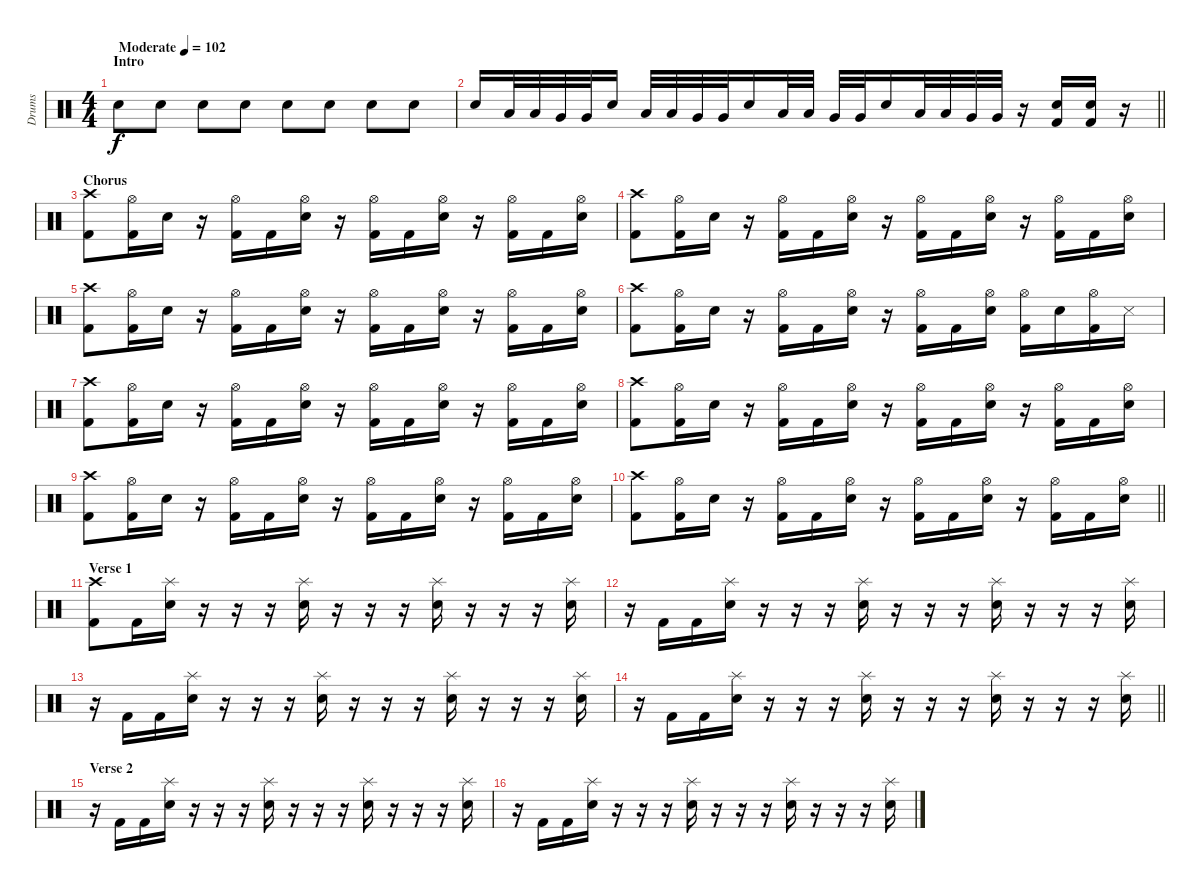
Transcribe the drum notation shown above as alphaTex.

\track ("Drums" "Drums") {instrument percussion}
\staff {score}
\articulation defaults
\ts (4 4)
\section ("" "Intro")
\tempo (102 "Moderate")
\clef neutral
\ks c "Electric Snare (hit)".8{dy f} "Electric Snare (hit)".8 "Electric Snare (hit)".8 "Electric Snare (hit)".8 "Electric Snare (hit)".8 "Electric Snare (hit)".8 "Electric Snare (hit)".8 "Electric Snare (hit)".8
|
\barLineRight lightlight "Electric Snare (hit)".16 "Low Tom (hit)".32 "Low Tom (hit)".32 "Very Low Tom (hit)".32 "Very Low Tom (hit)".32 "Electric Snare (hit)".16 "Low Tom (hit)".32 "Low Tom (hit)".32 "Very Low Tom (hit)".32 "Very Low Tom (hit)".32 "Electric Snare (hit)".16 "Low Tom (hit)".32 "Low Tom (hit)".32 "Very Low Tom (hit)".32 "Very Low Tom (hit)".32 "Electric Snare (hit)".16 "Low Tom (hit)".32 "Low Tom (hit)".32 "Very Low Tom (hit)".32 "Very Low Tom (hit)".32
r.16 ("Electric Snare (hit)" "Kick (hit) 2").16 ("Electric Snare (hit)" "Kick (hit) 2").16 r.16 |
\section ("" "Chorus")
("Crash high (hit)" "Kick (hit) 2").8 ("Hi-Hat (open)" "Kick (hit) 2").16 "Electric Snare (hit)".16 r.16 ("Hi-Hat (open)" "Kick (hit) 2").16 "Kick (hit) 2".16 ("Hi-Hat (open)" "Electric Snare (hit)").16 r.16 ("Hi-Hat (open)" "Kick (hit) 2").16 "Kick (hit) 2".16 ("Hi-Hat (open)" "Electric Snare (hit)").16 r.16 ("Hi-Hat (open)" "Kick (hit) 2").16 "Kick (hit) 2".16 ("Hi-Hat (open)" "Electric Snare (hit)").16 |
("Crash high (hit)" "Kick (hit) 2").8 ("Hi-Hat (open)" "Kick (hit) 2").16 "Electric Snare (hit)".16 r.16 ("Hi-Hat (open)" "Kick (hit) 2").16 "Kick (hit) 2".16 ("Hi-Hat (open)" "Electric Snare (hit)").16 r.16 ("Hi-Hat (open)" "Kick (hit) 2").16 "Kick (hit) 2".16 ("Hi-Hat (open)" "Electric Snare (hit)").16 r.16 ("Hi-Hat (open)" "Kick (hit) 2").16 "Kick (hit) 2".16 ("Hi-Hat (open)" "Electric Snare (hit)").16 |
("Crash high (hit)" "Kick (hit) 2").8 ("Hi-Hat (open)" "Kick (hit) 2").16 "Electric Snare (hit)".16 r.16 ("Hi-Hat (open)" "Kick (hit) 2").16 "Kick (hit) 2".16 ("Hi-Hat (open)" "Electric Snare (hit)").16 r.16 ("Hi-Hat (open)" "Kick (hit) 2").16 "Kick (hit) 2".16 ("Hi-Hat (open)" "Electric Snare (hit)").16 r.16 ("Hi-Hat (open)" "Kick (hit) 2").16 "Kick (hit) 2".16 ("Hi-Hat (open)" "Electric Snare (hit)").16 |
("Crash high (hit)" "Kick (hit) 2").8 ("Hi-Hat (open)" "Kick (hit) 2").16 "Electric Snare (hit)".16 r.16 ("Hi-Hat (open)" "Kick (hit) 2").16 "Kick (hit) 2".16 ("Hi-Hat (open)" "Electric Snare (hit)").16 r.16 ("Hi-Hat (open)" "Kick (hit) 2").16 "Kick (hit) 2".16 ("Hi-Hat (open)" "Electric Snare (hit)").16 ("Hi-Hat (open)" "Kick (hit) 2").16 "Electric Snare (hit)".16 ("Hi-Hat (open)" "Kick (hit) 2").16 "Snare (side stick) 3".16 |
("Crash high (hit)" "Kick (hit) 2").8 ("Hi-Hat (open)" "Kick (hit) 2").16 "Electric Snare (hit)".16 r.16 ("Hi-Hat (open)" "Kick (hit) 2").16 "Kick (hit) 2".16 ("Hi-Hat (open)" "Electric Snare (hit)").16 r.16 ("Hi-Hat (open)" "Kick (hit) 2").16 "Kick (hit) 2".16 ("Hi-Hat (open)" "Electric Snare (hit)").16 r.16 ("Hi-Hat (open)" "Kick (hit) 2").16 "Kick (hit) 2".16 ("Hi-Hat (open)" "Electric Snare (hit)").16 |
("Crash high (hit)" "Kick (hit) 2").8 ("Hi-Hat (open)" "Kick (hit) 2").16 "Electric Snare (hit)".16 r.16 ("Hi-Hat (open)" "Kick (hit) 2").16 "Kick (hit) 2".16 ("Hi-Hat (open)" "Electric Snare (hit)").16 r.16 ("Hi-Hat (open)" "Kick (hit) 2").16 "Kick (hit) 2".16 ("Hi-Hat (open)" "Electric Snare (hit)").16 r.16 ("Hi-Hat (open)" "Kick (hit) 2").16 "Kick (hit) 2".16 ("Hi-Hat (open)" "Electric Snare (hit)").16 |
("Crash high (hit)" "Kick (hit) 2").8 ("Hi-Hat (open)" "Kick (hit) 2").16 "Electric Snare (hit)".16 r.16 ("Hi-Hat (open)" "Kick (hit) 2").16 "Kick (hit) 2".16 ("Hi-Hat (open)" "Electric Snare (hit)").16 r.16 ("Hi-Hat (open)" "Kick (hit) 2").16 "Kick (hit) 2".16 ("Hi-Hat (open)" "Electric Snare (hit)").16 r.16 ("Hi-Hat (open)" "Kick (hit) 2").16 "Kick (hit) 2".16 ("Hi-Hat (open)" "Electric Snare (hit)").16 |
\barLineRight lightlight
("Crash high (hit)" "Kick (hit) 2").8 ("Hi-Hat (open)" "Kick (hit) 2").16 "Electric Snare (hit)".16 r.16 ("Hi-Hat (open)" "Kick (hit) 2").16 "Kick (hit) 2".16 ("Hi-Hat (open)" "Electric Snare (hit)").16 r.16 ("Hi-Hat (open)" "Kick (hit) 2").16 "Kick (hit) 2".16 ("Hi-Hat (open)" "Electric Snare (hit)").16 r.16 ("Hi-Hat (open)" "Kick (hit) 2").16 "Kick (hit) 2".16 ("Hi-Hat (open)" "Electric Snare (hit)").16 |
\section ("" "Verse 1")
("Crash high (hit)" "Kick (hit) 2").8 "Kick (hit) 2".16 ("Splash (hit)" "Electric Snare (hit)").16 r.16 r.16 r.16 ("Splash (hit)" "Electric Snare (hit)").16 r.16 r.16 r.16 ("Splash (hit)" "Electric Snare (hit)").16 r.16 r.16 r.16 ("Splash (hit)" "Electric Snare (hit)").16 |
r.16 "Kick (hit) 2".16 "Kick (hit) 2".16 ("Splash (hit)" "Electric Snare (hit)").16 r.16 r.16 r.16 ("Splash (hit)" "Electric Snare (hit)").16 r.16 r.16 r.16 ("Splash (hit)" "Electric Snare (hit)").16 r.16 r.16 r.16 ("Splash (hit)" "Electric Snare (hit)").16 |
r.16 "Kick (hit) 2".16 "Kick (hit) 2".16 ("Splash (hit)" "Electric Snare (hit)").16 r.16 r.16 r.16 ("Splash (hit)" "Electric Snare (hit)").16 r.16 r.16 r.16 ("Splash (hit)" "Electric Snare (hit)").16 r.16 r.16 r.16 ("Splash (hit)" "Electric Snare (hit)").16 |
\barLineRight lightlight
r.16 "Kick (hit) 2".16 "Kick (hit) 2".16 ("Splash (hit)" "Electric Snare (hit)").16 r.16 r.16 r.16 ("Splash (hit)" "Electric Snare (hit)").16 r.16 r.16 r.16 ("Splash (hit)" "Electric Snare (hit)").16 r.16 r.16 r.16 ("Splash (hit)" "Electric Snare (hit)").16 |
\section ("" "Verse 2")
r.16 "Kick (hit) 2".16 "Kick (hit) 2".16 ("Splash (hit)" "Electric Snare (hit)").16 r.16 r.16 r.16 ("Splash (hit)" "Electric Snare (hit)").16 r.16 r.16 r.16 ("Splash (hit)" "Electric Snare (hit)").16 r.16 r.16 r.16 ("Splash (hit)" "Electric Snare (hit)").16 |
r.16 "Kick (hit) 2".16 "Kick (hit) 2".16 ("Splash (hit)" "Electric Snare (hit)").16 r.16 r.16 r.16 ("Splash (hit)" "Electric Snare (hit)").16 r.16 r.16 r.16 ("Splash (hit)" "Electric Snare (hit)").16 r.16 r.16 r.16 ("Splash (hit)" "Electric Snare (hit)").16
